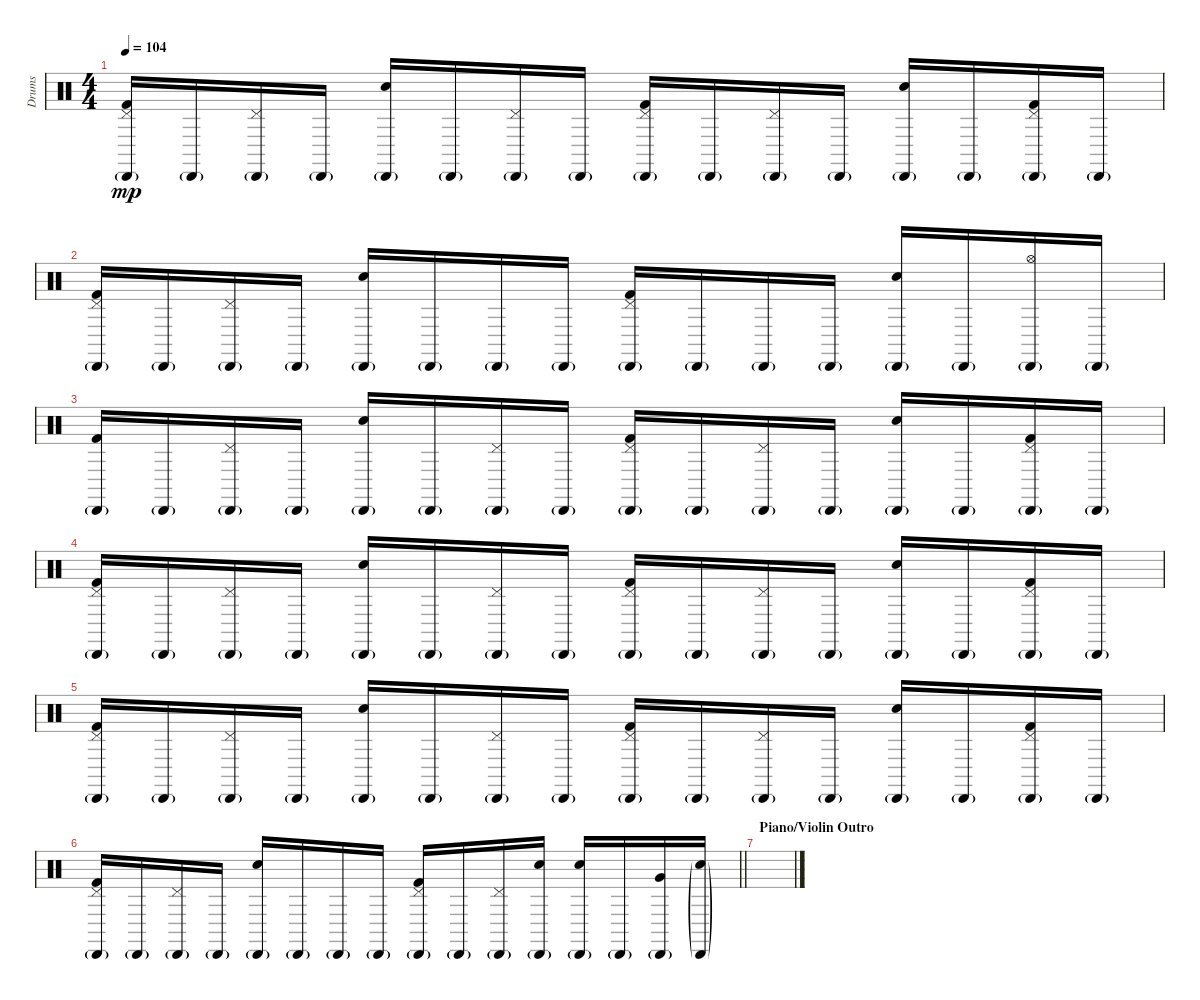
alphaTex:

\track ("Drums" "Drums") {instrument percussion}
\staff {score}
\articulation defaults
\ts (4 4)
\tempo 104
\clef neutral
\ks c
("Pedal Hi-Hat (hit)" "Cabasa (hit)"{g} "Kick (hit) 2").16{dy mp} "Cabasa (hit)"{g}.16 ("Pedal Hi-Hat (hit)" "Cabasa (hit)"{g}).16 "Cabasa (hit)"{g}.16 ("Snare (hit) 2" "Cabasa (hit)"{g}).16 "Cabasa (hit)"{g}.16 ("Pedal Hi-Hat (hit)" "Cabasa (hit)"{g}).16 "Cabasa (hit)"{g}.16 ("Pedal Hi-Hat (hit)" "Cabasa (hit)"{g} "Kick (hit) 2").16 "Cabasa (hit)"{g}.16 ("Pedal Hi-Hat (hit)" "Cabasa (hit)"{g}).16 "Cabasa (hit)"{g}.16 ("Snare (hit) 2" "Cabasa (hit)"{g}).16 "Cabasa (hit)"{g}.16 ("Pedal Hi-Hat (hit)" "Cabasa (hit)"{g} "Kick (hit) 2").16 "Cabasa (hit)"{g}.16 |
("Pedal Hi-Hat (hit)" "Cabasa (hit)"{g} "Kick (hit) 2").16 "Cabasa (hit)"{g}.16 ("Pedal Hi-Hat (hit)" "Cabasa (hit)"{g}).16 "Cabasa (hit)"{g}.16 ("Snare (hit) 2" "Cabasa (hit)"{g}).16 "Cabasa (hit)"{g}.16 "Cabasa (hit)"{g}.16 "Cabasa (hit)"{g}.16 ("Pedal Hi-Hat (hit)" "Cabasa (hit)"{g} "Kick (hit) 2").16 "Cabasa (hit)"{g}.16 "Cabasa (hit)"{g}.16 "Cabasa (hit)"{g}.16 ("Snare (hit) 2" "Cabasa (hit)"{g}).16 "Cabasa (hit)"{g}.16 ("Hi-Hat (open)" "Cabasa (hit)"{g}).16 "Cabasa (hit)"{g}.16 |
("Cabasa (hit)"{g} "Kick (hit) 2").16{volume 0} "Cabasa (hit)"{g}.16 ("Pedal Hi-Hat (hit)" "Cabasa (hit)"{g}).16 "Cabasa (hit)"{g}.16 ("Snare (hit) 2" "Cabasa (hit)"{g}).16 "Cabasa (hit)"{g}.16 ("Pedal Hi-Hat (hit)" "Cabasa (hit)"{g}).16 "Cabasa (hit)"{g}.16 ("Pedal Hi-Hat (hit)" "Cabasa (hit)"{g} "Kick (hit) 2").16 "Cabasa (hit)"{g}.16 ("Pedal Hi-Hat (hit)" "Cabasa (hit)"{g}).16 "Cabasa (hit)"{g}.16 ("Snare (hit) 2" "Cabasa (hit)"{g}).16 "Cabasa (hit)"{g}.16 ("Pedal Hi-Hat (hit)" "Cabasa (hit)"{g} "Kick (hit) 2").16 "Cabasa (hit)"{g}.16 |
("Pedal Hi-Hat (hit)" "Cabasa (hit)"{g} "Kick (hit) 2").16 "Cabasa (hit)"{g}.16 ("Pedal Hi-Hat (hit)" "Cabasa (hit)"{g}).16 "Cabasa (hit)"{g}.16 ("Snare (hit) 2" "Cabasa (hit)"{g}).16 "Cabasa (hit)"{g}.16 ("Pedal Hi-Hat (hit)" "Cabasa (hit)"{g}).16 "Cabasa (hit)"{g}.16 ("Pedal Hi-Hat (hit)" "Cabasa (hit)"{g} "Kick (hit) 2").16 "Cabasa (hit)"{g}.16 ("Pedal Hi-Hat (hit)" "Cabasa (hit)"{g}).16 "Cabasa (hit)"{g}.16 ("Snare (hit) 2" "Cabasa (hit)"{g}).16 "Cabasa (hit)"{g}.16 ("Pedal Hi-Hat (hit)" "Cabasa (hit)"{g} "Kick (hit) 2").16 "Cabasa (hit)"{g}.16 |
("Pedal Hi-Hat (hit)" "Cabasa (hit)"{g} "Kick (hit) 2").16 "Cabasa (hit)"{g}.16 ("Pedal Hi-Hat (hit)" "Cabasa (hit)"{g}).16 "Cabasa (hit)"{g}.16 ("Snare (hit) 2" "Cabasa (hit)"{g}).16 "Cabasa (hit)"{g}.16 ("Pedal Hi-Hat (hit)" "Cabasa (hit)"{g}).16 "Cabasa (hit)"{g}.16 ("Pedal Hi-Hat (hit)" "Cabasa (hit)"{g} "Kick (hit) 2").16 "Cabasa (hit)"{g}.16 ("Pedal Hi-Hat (hit)" "Cabasa (hit)"{g}).16 "Cabasa (hit)"{g}.16 ("Snare (hit) 2" "Cabasa (hit)"{g}).16 "Cabasa (hit)"{g}.16 ("Pedal Hi-Hat (hit)" "Cabasa (hit)"{g} "Kick (hit) 2").16 "Cabasa (hit)"{g}.16 |
\barLineRight lightlight
("Pedal Hi-Hat (hit)" "Cabasa (hit)"{g} "Kick (hit) 2").16 "Cabasa (hit)"{g}.16 ("Pedal Hi-Hat (hit)" "Cabasa (hit)"{g}).16 "Cabasa (hit)"{g}.16 ("Snare (hit) 2" "Cabasa (hit)"{g}).16 "Cabasa (hit)"{g}.16 "Cabasa (hit)"{g}.16 "Cabasa (hit)"{g}.16 ("Pedal Hi-Hat (hit)" "Cabasa (hit)"{g} "Kick (hit) 2").16 "Cabasa (hit)"{g}.16 ("Pedal Hi-Hat (hit)" "Cabasa (hit)"{g}).16 ("Snare (hit) 2" "Cabasa (hit)"{g}).16 ("Snare (hit) 2" "Cabasa (hit)"{g}).16 "Cabasa (hit)"{g}.16 ("Very Low Tom (hit)" "Cabasa (hit)"{g}).16 ("Snare (hit) 2"{g} "Cabasa (hit)"{g}).16 |
\section ("" "Piano/Violin Outro")
